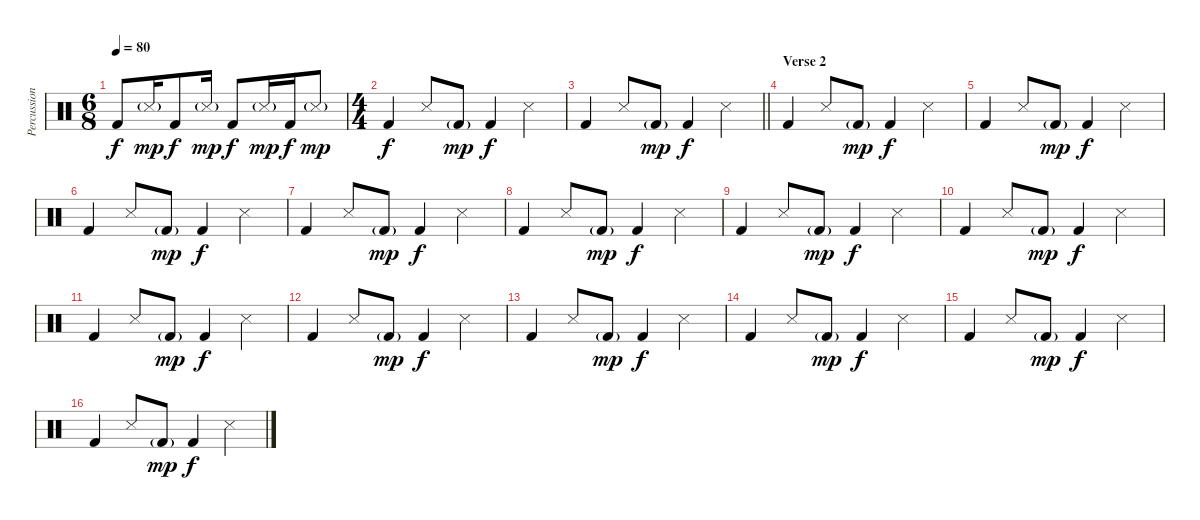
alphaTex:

\track ("Percussion" "Percussion") {instrument percussion}
\staff {score}
\articulation defaults
\ts (6 8)
\tempo 80
\clef neutral
\ks c "Kick (hit) 2".8{dy f} "Snare (side stick) 3"{g}.16{dy mp} "Kick (hit) 2".8{dy f} "Snare (side stick) 3"{g}.16{dy mp} "Kick (hit) 2".8{dy f} "Snare (side stick) 3"{g}.16{dy mp} "Kick (hit) 2".16{dy f} "Snare (side stick) 3"{g}.8{dy mp}
|
\ts (4 4)
"Kick (hit) 2".4{dy f} "Snare (side stick) 3".8 "Kick (hit) 2"{g}.8{dy mp} "Kick (hit) 2".4{dy f} "Snare (side stick) 3".4 |
\barLineRight lightlight "Kick (hit) 2".4 "Snare (side stick) 3".8 "Kick (hit) 2"{g}.8{dy mp} "Kick (hit) 2".4{dy f} "Snare (side stick) 3".4
|
\section ("" "Verse 2")
"Kick (hit) 2".4 "Snare (side stick) 3".8 "Kick (hit) 2"{g}.8{dy mp} "Kick (hit) 2".4{dy f} "Snare (side stick) 3".4 |
"Kick (hit) 2".4 "Snare (side stick) 3".8 "Kick (hit) 2"{g}.8{dy mp} "Kick (hit) 2".4{dy f} "Snare (side stick) 3".4 |
"Kick (hit) 2".4 "Snare (side stick) 3".8 "Kick (hit) 2"{g}.8{dy mp} "Kick (hit) 2".4{dy f} "Snare (side stick) 3".4 |
"Kick (hit) 2".4 "Snare (side stick) 3".8 "Kick (hit) 2"{g}.8{dy mp} "Kick (hit) 2".4{dy f} "Snare (side stick) 3".4 |
"Kick (hit) 2".4 "Snare (side stick) 3".8 "Kick (hit) 2"{g}.8{dy mp} "Kick (hit) 2".4{dy f} "Snare (side stick) 3".4 |
"Kick (hit) 2".4 "Snare (side stick) 3".8 "Kick (hit) 2"{g}.8{dy mp} "Kick (hit) 2".4{dy f} "Snare (side stick) 3".4 |
"Kick (hit) 2".4 "Snare (side stick) 3".8 "Kick (hit) 2"{g}.8{dy mp} "Kick (hit) 2".4{dy f} "Snare (side stick) 3".4 |
"Kick (hit) 2".4 "Snare (side stick) 3".8 "Kick (hit) 2"{g}.8{dy mp} "Kick (hit) 2".4{dy f} "Snare (side stick) 3".4 |
"Kick (hit) 2".4 "Snare (side stick) 3".8 "Kick (hit) 2"{g}.8{dy mp} "Kick (hit) 2".4{dy f} "Snare (side stick) 3".4 |
"Kick (hit) 2".4 "Snare (side stick) 3".8 "Kick (hit) 2"{g}.8{dy mp} "Kick (hit) 2".4{dy f} "Snare (side stick) 3".4 |
"Kick (hit) 2".4 "Snare (side stick) 3".8 "Kick (hit) 2"{g}.8{dy mp} "Kick (hit) 2".4{dy f} "Snare (side stick) 3".4 |
"Kick (hit) 2".4 "Snare (side stick) 3".8 "Kick (hit) 2"{g}.8{dy mp} "Kick (hit) 2".4{dy f} "Snare (side stick) 3".4 |
"Kick (hit) 2".4 "Snare (side stick) 3".8 "Kick (hit) 2"{g}.8{dy mp} "Kick (hit) 2".4{dy f} "Snare (side stick) 3".4
